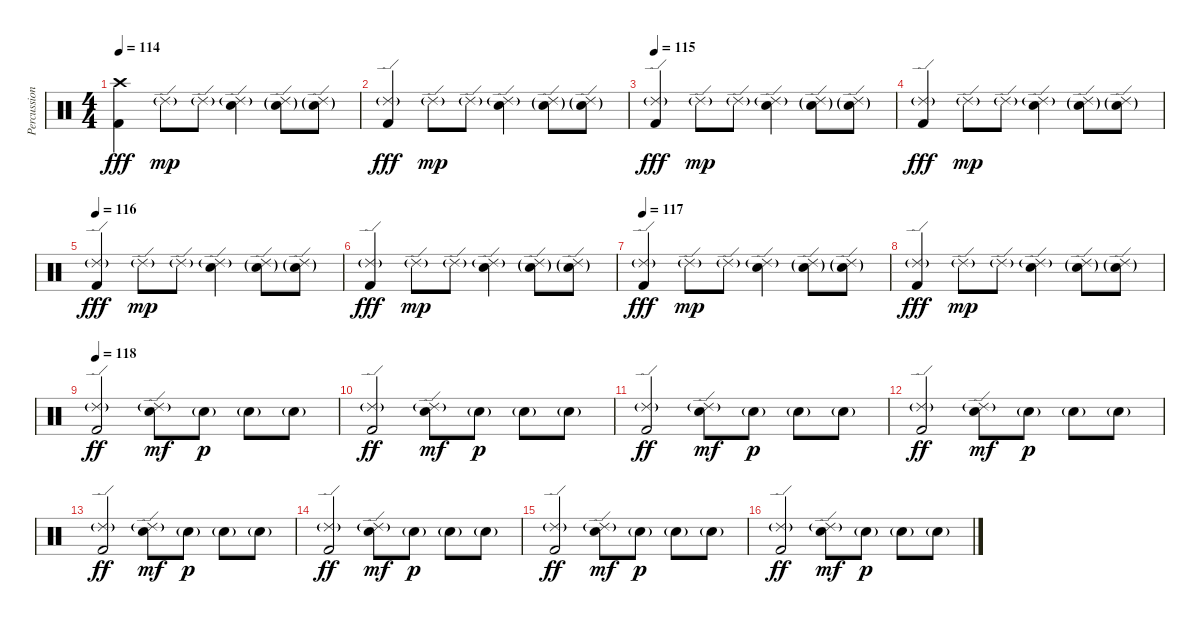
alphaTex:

\track ("Percussion" "Percussion") {instrument percussion}
\staff {score}
\articulation defaults
\ts (4 4)
\tempo 114
\clef neutral
\ks c
("Crash high (hit)" "Kick (hit) 2").4{dy fff} "Ride (edge) 2"{g}.8{dy mp} "Ride (edge) 2"{g}.8 ("Ride (edge) 2"{g} "Electric Snare (hit)").4 ("Ride (edge) 2"{g} "Electric Snare (hit)"{g}).8 ("Ride (edge) 2"{g} "Electric Snare (hit)"{g}).8 |
("Ride (edge) 2"{g} "Kick (hit) 2").4{dy fff} "Ride (edge) 2"{g}.8{dy mp} "Ride (edge) 2"{g}.8 ("Ride (edge) 2"{g} "Electric Snare (hit)").4 ("Ride (edge) 2"{g} "Electric Snare (hit)"{g}).8 ("Ride (edge) 2"{g} "Electric Snare (hit)"{g}).8 |
\tempo 115
("Ride (edge) 2"{g} "Kick (hit) 2").4{dy fff} "Ride (edge) 2"{g}.8{dy mp} "Ride (edge) 2"{g}.8 ("Ride (edge) 2"{g} "Electric Snare (hit)").4 ("Ride (edge) 2"{g} "Electric Snare (hit)"{g}).8 ("Ride (edge) 2"{g} "Electric Snare (hit)"{g}).8 |
("Ride (edge) 2"{g} "Kick (hit) 2").4{dy fff} "Ride (edge) 2"{g}.8{dy mp} "Ride (edge) 2"{g}.8 ("Ride (edge) 2"{g} "Electric Snare (hit)").4 ("Ride (edge) 2"{g} "Electric Snare (hit)"{g}).8 ("Ride (edge) 2"{g} "Electric Snare (hit)"{g}).8 |
\tempo 116
("Ride (edge) 2"{g} "Kick (hit) 2").4{dy fff} "Ride (edge) 2"{g}.8{dy mp} "Ride (edge) 2"{g}.8 ("Ride (edge) 2"{g} "Electric Snare (hit)").4 ("Ride (edge) 2"{g} "Electric Snare (hit)"{g}).8 ("Ride (edge) 2"{g} "Electric Snare (hit)"{g}).8 |
("Ride (edge) 2"{g} "Kick (hit) 2").4{dy fff} "Ride (edge) 2"{g}.8{dy mp} "Ride (edge) 2"{g}.8 ("Ride (edge) 2"{g} "Electric Snare (hit)").4 ("Ride (edge) 2"{g} "Electric Snare (hit)"{g}).8 ("Ride (edge) 2"{g} "Electric Snare (hit)"{g}).8 |
\tempo 117
("Ride (edge) 2"{g} "Kick (hit) 2").4{dy fff} "Ride (edge) 2"{g}.8{dy mp} "Ride (edge) 2"{g}.8 ("Ride (edge) 2"{g} "Electric Snare (hit)").4 ("Ride (edge) 2"{g} "Electric Snare (hit)"{g}).8 ("Ride (edge) 2"{g} "Electric Snare (hit)"{g}).8 |
("Ride (edge) 2"{g} "Kick (hit) 2").4{dy fff} "Ride (edge) 2"{g}.8{dy mp} "Ride (edge) 2"{g}.8 ("Ride (edge) 2"{g} "Electric Snare (hit)").4 ("Ride (edge) 2"{g} "Electric Snare (hit)"{g}).8 ("Ride (edge) 2"{g} "Electric Snare (hit)"{g}).8 |
\tempo 118
("Ride (edge) 2"{g} "Kick (hit) 2").2{dy ff volume 16} ("Ride (edge) 2"{g} "Electric Snare (hit)").8{dy mf} "Electric Snare (hit)"{g}.8{dy p} "Electric Snare (hit)"{g}.8 "Electric Snare (hit)"{g}.8 |
("Ride (edge) 2"{g} "Kick (hit) 2").2{dy ff} ("Ride (edge) 2"{g} "Electric Snare (hit)").8{dy mf} "Electric Snare (hit)"{g}.8{dy p} "Electric Snare (hit)"{g}.8 "Electric Snare (hit)"{g}.8 |
("Ride (edge) 2"{g} "Kick (hit) 2").2{dy ff} ("Ride (edge) 2"{g} "Electric Snare (hit)").8{dy mf} "Electric Snare (hit)"{g}.8{dy p} "Electric Snare (hit)"{g}.8 "Electric Snare (hit)"{g}.8 |
("Ride (edge) 2"{g} "Kick (hit) 2").2{dy ff} ("Ride (edge) 2"{g} "Electric Snare (hit)").8{dy mf} "Electric Snare (hit)"{g}.8{dy p} "Electric Snare (hit)"{g}.8 "Electric Snare (hit)"{g}.8 |
("Ride (edge) 2"{g} "Kick (hit) 2").2{dy ff} ("Ride (edge) 2"{g} "Electric Snare (hit)").8{dy mf} "Electric Snare (hit)"{g}.8{dy p} "Electric Snare (hit)"{g}.8 "Electric Snare (hit)"{g}.8 |
("Ride (edge) 2"{g} "Kick (hit) 2").2{dy ff} ("Ride (edge) 2"{g} "Electric Snare (hit)").8{dy mf} "Electric Snare (hit)"{g}.8{dy p} "Electric Snare (hit)"{g}.8 "Electric Snare (hit)"{g}.8 |
("Ride (edge) 2"{g} "Kick (hit) 2").2{dy ff} ("Ride (edge) 2"{g} "Electric Snare (hit)").8{dy mf} "Electric Snare (hit)"{g}.8{dy p} "Electric Snare (hit)"{g}.8 "Electric Snare (hit)"{g}.8 |
("Ride (edge) 2"{g} "Kick (hit) 2").2{dy ff} ("Ride (edge) 2"{g} "Electric Snare (hit)").8{dy mf} "Electric Snare (hit)"{g}.8{dy p} "Electric Snare (hit)"{g}.8 "Electric Snare (hit)"{g}.8
